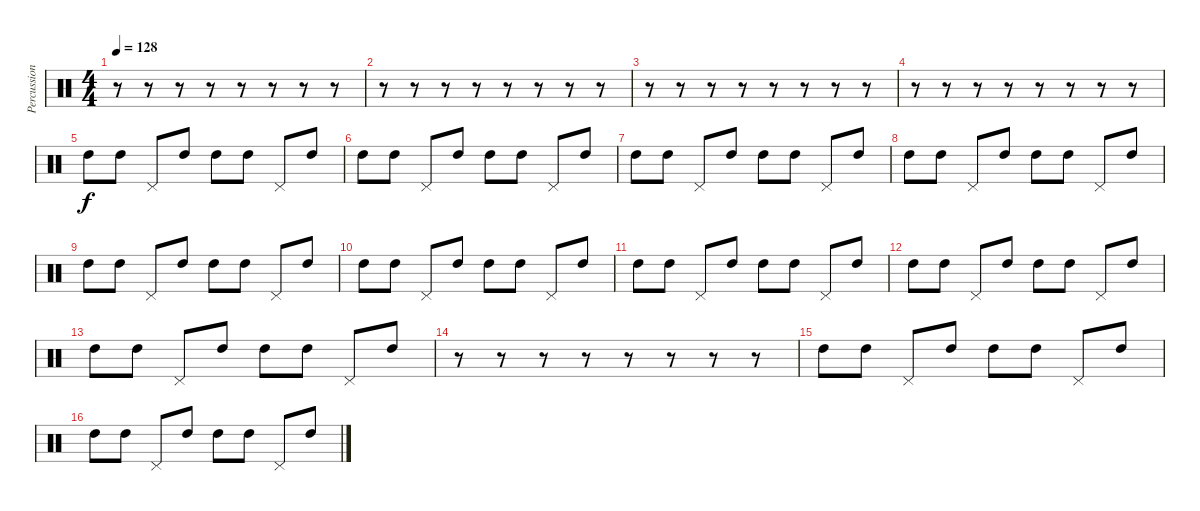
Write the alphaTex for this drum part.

\track ("Percussion" "Percussion") {instrument percussion}
\staff {score}
\articulation defaults
\ts (4 4)
\tempo 128
\clef neutral
\ks c
r.8{dy f} r.8 r.8 r.8 r.8 r.8 r.8 r.8 |
r.8 r.8 r.8 r.8 r.8 r.8 r.8 r.8 |
r.8 r.8 r.8 r.8 r.8 r.8 r.8 r.8 |
r.8 r.8 r.8 r.8 r.8 r.8 r.8 r.8 |
"High Tom (hit)".8 "High Tom (hit)".8 "Pedal Hi-Hat (hit)".8 "High Tom (hit)".8 "High Tom (hit)".8 "High Tom (hit)".8 "Pedal Hi-Hat (hit)".8 "High Tom (hit)".8 |
"High Tom (hit)".8 "High Tom (hit)".8 "Pedal Hi-Hat (hit)".8 "High Tom (hit)".8 "High Tom (hit)".8 "High Tom (hit)".8 "Pedal Hi-Hat (hit)".8 "High Tom (hit)".8 |
"High Tom (hit)".8 "High Tom (hit)".8 "Pedal Hi-Hat (hit)".8 "High Tom (hit)".8 "High Tom (hit)".8 "High Tom (hit)".8 "Pedal Hi-Hat (hit)".8 "High Tom (hit)".8 |
"High Tom (hit)".8 "High Tom (hit)".8 "Pedal Hi-Hat (hit)".8 "High Tom (hit)".8 "High Tom (hit)".8 "High Tom (hit)".8 "Pedal Hi-Hat (hit)".8 "High Tom (hit)".8 |
"High Tom (hit)".8 "High Tom (hit)".8 "Pedal Hi-Hat (hit)".8 "High Tom (hit)".8 "High Tom (hit)".8 "High Tom (hit)".8 "Pedal Hi-Hat (hit)".8 "High Tom (hit)".8 |
"High Tom (hit)".8 "High Tom (hit)".8 "Pedal Hi-Hat (hit)".8 "High Tom (hit)".8 "High Tom (hit)".8 "High Tom (hit)".8 "Pedal Hi-Hat (hit)".8 "High Tom (hit)".8 |
"High Tom (hit)".8 "High Tom (hit)".8 "Pedal Hi-Hat (hit)".8 "High Tom (hit)".8 "High Tom (hit)".8 "High Tom (hit)".8 "Pedal Hi-Hat (hit)".8 "High Tom (hit)".8 |
"High Tom (hit)".8 "High Tom (hit)".8 "Pedal Hi-Hat (hit)".8 "High Tom (hit)".8 "High Tom (hit)".8 "High Tom (hit)".8 "Pedal Hi-Hat (hit)".8 "High Tom (hit)".8 |
"High Tom (hit)".8 "High Tom (hit)".8 "Pedal Hi-Hat (hit)".8 "High Tom (hit)".8 "High Tom (hit)".8 "High Tom (hit)".8 "Pedal Hi-Hat (hit)".8 "High Tom (hit)".8 |
r.8 r.8 r.8 r.8 r.8 r.8 r.8 r.8 |
"High Tom (hit)".8 "High Tom (hit)".8 "Pedal Hi-Hat (hit)".8 "High Tom (hit)".8 "High Tom (hit)".8 "High Tom (hit)".8 "Pedal Hi-Hat (hit)".8 "High Tom (hit)".8 |
"High Tom (hit)".8 "High Tom (hit)".8 "Pedal Hi-Hat (hit)".8 "High Tom (hit)".8 "High Tom (hit)".8 "High Tom (hit)".8 "Pedal Hi-Hat (hit)".8 "High Tom (hit)".8
